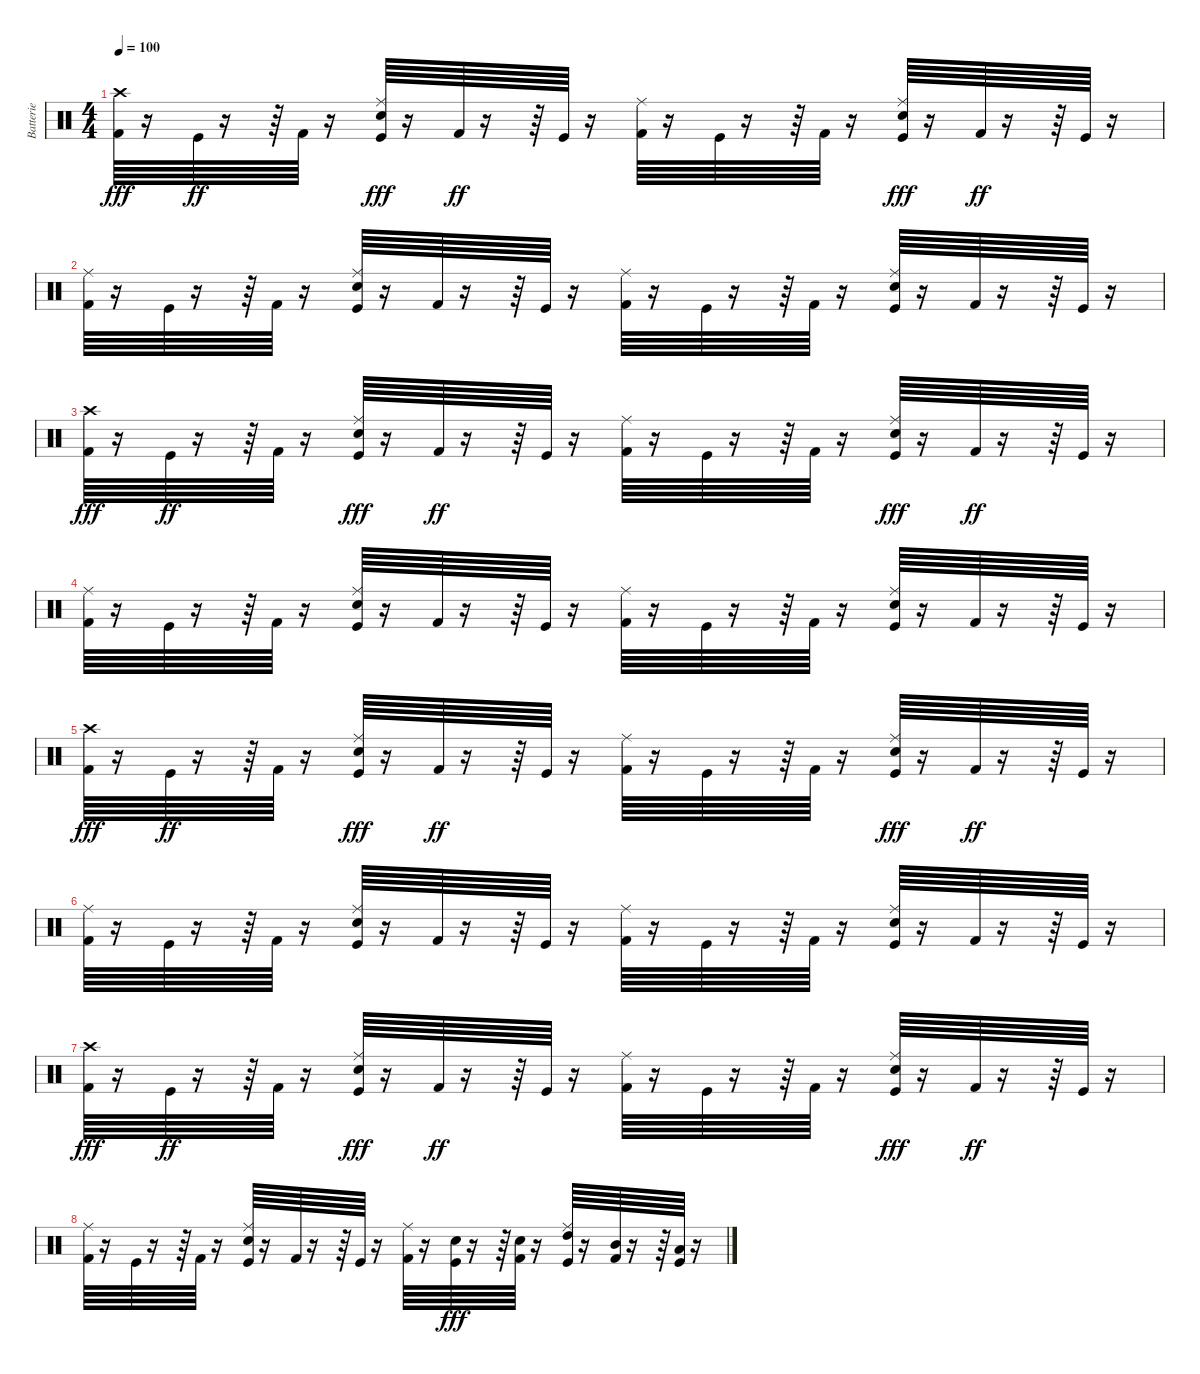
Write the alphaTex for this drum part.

\track ("Batterie" "Batterie") {instrument percussion}
\staff {score}
\articulation defaults
\ts (4 4)
\tempo 100
\clef neutral
\ks c
("Kick (hit) 2" "Crash high (hit)").64{dy fff} r.16 "Kick (hit)".64{dy ff} r.16 r.64 "Kick (hit) 2".64 r.16 ("Kick (hit)" "Ride (middle)" "Electric Snare (hit)").64{dy fff} r.16 "Kick (hit) 2".64{dy ff} r.16 r.64 "Kick (hit)".64 r.16 ("Kick (hit) 2" "Ride (middle)").64 r.16 "Kick (hit)".64 r.16 r.64 "Kick (hit) 2".64 r.16 ("Kick (hit)" "Ride (middle)" "Electric Snare (hit)").64{dy fff} r.16 "Kick (hit) 2".64{dy ff} r.16 r.64 "Kick (hit)".64 r.16 |
("Kick (hit) 2" "Ride (middle)").64 r.16 "Kick (hit)".64 r.16 r.64 "Kick (hit) 2".64 r.16 ("Kick (hit)" "Electric Snare (hit)" "Ride (middle)").64 r.16 "Kick (hit) 2".64 r.16 r.64 "Kick (hit)".64 r.16 ("Kick (hit) 2" "Ride (middle)").64 r.16 "Kick (hit)".64 r.16 r.64 "Kick (hit) 2".64 r.16 ("Kick (hit)" "Electric Snare (hit)" "Ride (middle)").64 r.16 "Kick (hit) 2".64 r.16 r.64 "Kick (hit)".64 r.16 |
("Kick (hit) 2" "Crash high (hit)").64{dy fff} r.16 "Kick (hit)".64{dy ff} r.16 r.64 "Kick (hit) 2".64 r.16 ("Kick (hit)" "Ride (middle)" "Electric Snare (hit)").64{dy fff} r.16 "Kick (hit) 2".64{dy ff} r.16 r.64 "Kick (hit)".64 r.16 ("Kick (hit) 2" "Ride (middle)").64 r.16 "Kick (hit)".64 r.16 r.64 "Kick (hit) 2".64 r.16 ("Kick (hit)" "Ride (middle)" "Electric Snare (hit)").64{dy fff} r.16 "Kick (hit) 2".64{dy ff} r.16 r.64 "Kick (hit)".64 r.16 |
("Kick (hit) 2" "Ride (middle)").64 r.16 "Kick (hit)".64 r.16 r.64 "Kick (hit) 2".64 r.16 ("Kick (hit)" "Electric Snare (hit)" "Ride (middle)").64 r.16 "Kick (hit) 2".64 r.16 r.64 "Kick (hit)".64 r.16 ("Kick (hit) 2" "Ride (middle)").64 r.16 "Kick (hit)".64 r.16 r.64 "Kick (hit) 2".64 r.16 ("Kick (hit)" "Electric Snare (hit)" "Ride (middle)").64 r.16 "Kick (hit) 2".64 r.16 r.64 "Kick (hit)".64 r.16 |
("Kick (hit) 2" "Crash high (hit)").64{dy fff} r.16 "Kick (hit)".64{dy ff} r.16 r.64 "Kick (hit) 2".64 r.16 ("Kick (hit)" "Ride (middle)" "Electric Snare (hit)").64{dy fff} r.16 "Kick (hit) 2".64{dy ff} r.16 r.64 "Kick (hit)".64 r.16 ("Kick (hit) 2" "Ride (middle)").64 r.16 "Kick (hit)".64 r.16 r.64 "Kick (hit) 2".64 r.16 ("Kick (hit)" "Ride (middle)" "Electric Snare (hit)").64{dy fff} r.16 "Kick (hit) 2".64{dy ff} r.16 r.64 "Kick (hit)".64 r.16 |
("Kick (hit) 2" "Ride (middle)").64 r.16 "Kick (hit)".64 r.16 r.64 "Kick (hit) 2".64 r.16 ("Kick (hit)" "Electric Snare (hit)" "Ride (middle)").64 r.16 "Kick (hit) 2".64 r.16 r.64 "Kick (hit)".64 r.16 ("Kick (hit) 2" "Ride (middle)").64 r.16 "Kick (hit)".64 r.16 r.64 "Kick (hit) 2".64 r.16 ("Kick (hit)" "Electric Snare (hit)" "Ride (middle)").64 r.16 "Kick (hit) 2".64 r.16 r.64 "Kick (hit)".64 r.16 |
("Kick (hit) 2" "Crash high (hit)").64{dy fff} r.16 "Kick (hit)".64{dy ff} r.16 r.64 "Kick (hit) 2".64 r.16 ("Kick (hit)" "Ride (middle)" "Electric Snare (hit)").64{dy fff} r.16 "Kick (hit) 2".64{dy ff} r.16 r.64 "Kick (hit)".64 r.16 ("Kick (hit) 2" "Ride (middle)").64 r.16 "Kick (hit)".64 r.16 r.64 "Kick (hit) 2".64 r.16 ("Kick (hit)" "Ride (middle)" "Electric Snare (hit)").64{dy fff} r.16 "Kick (hit) 2".64{dy ff} r.16 r.64 "Kick (hit)".64 r.16 |
("Kick (hit) 2" "Ride (middle)").64 r.16 "Kick (hit)".64 r.16 r.64 "Kick (hit) 2".64 r.16 ("Kick (hit)" "Electric Snare (hit)" "Ride (middle)").64 r.16 "Kick (hit) 2".64 r.16 r.64 "Kick (hit)".64 r.16 ("Kick (hit) 2" "Ride (middle)").64 r.16 ("Kick (hit)" "Electric Snare (hit)").64{dy fff} r.16 r.64 ("Kick (hit) 2" "Electric Snare (hit)").64 r.16 ("Kick (hit)" "Ride (middle)" "High Tom (hit)").64 r.16 ("Kick (hit) 2" "Mid Tom (hit)").64 r.16 r.64 ("Kick (hit)" "Low Tom (hit)").64 r.16
